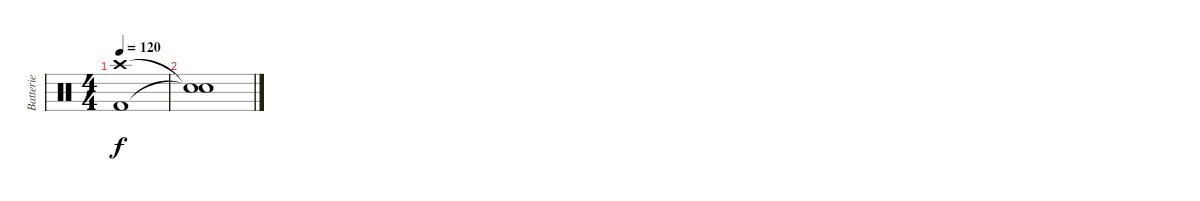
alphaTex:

\track ("Batterie" "Batterie") {instrument percussion}
\staff {score}
\articulation defaults
\ts (4 4)
\tempo 120
\clef neutral
\ks c
("Crash high (hit)" "Kick (hit) 2").1{dy f volume 4} |
("Snare (hit)"{t} "Snare (hit)"{t}).1
